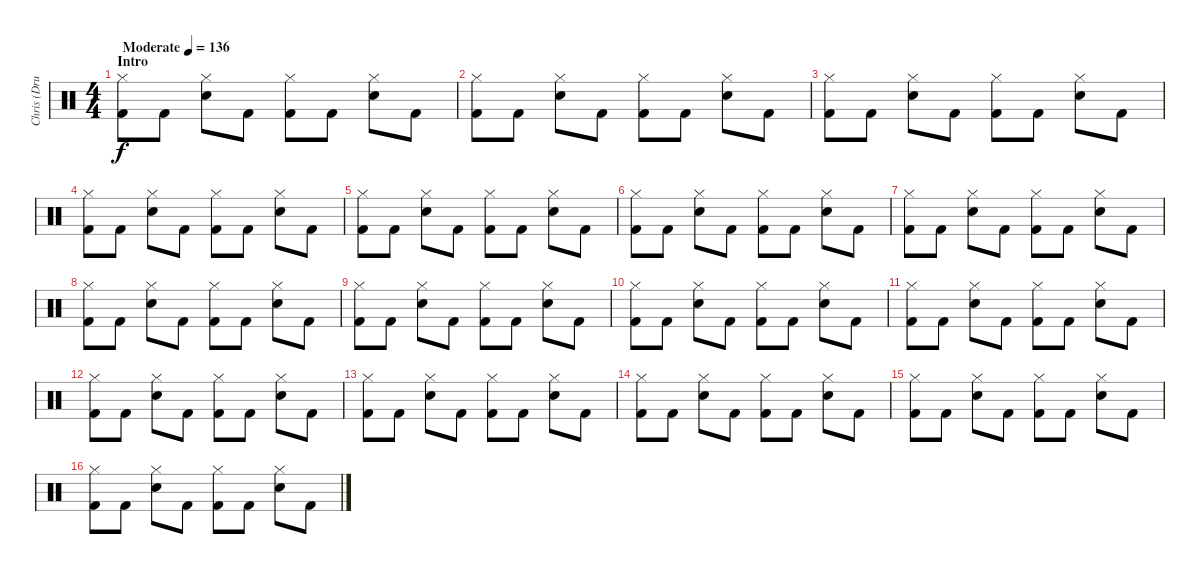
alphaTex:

\track ("Chris (Drums)" "Chris (Dru") {instrument percussion}
\staff {score}
\articulation defaults
\ts (4 4)
\section ("" "Intro")
\tempo (136 "Moderate")
\clef neutral
\ks c
("Hi-Hat (closed)" "Kick (hit) 2").8{dy f} "Kick (hit) 2".8 ("Hi-Hat (closed)" "Snare (hit) 2").8 "Kick (hit) 2".8 ("Hi-Hat (closed)" "Kick (hit) 2").8 "Kick (hit) 2".8 ("Hi-Hat (closed)" "Snare (hit) 2").8 "Kick (hit) 2".8 |
("Hi-Hat (closed)" "Kick (hit) 2").8 "Kick (hit) 2".8 ("Hi-Hat (closed)" "Snare (hit) 2").8 "Kick (hit) 2".8 ("Hi-Hat (closed)" "Kick (hit) 2").8 "Kick (hit) 2".8 ("Hi-Hat (closed)" "Snare (hit) 2").8 "Kick (hit) 2".8 |
("Hi-Hat (closed)" "Kick (hit) 2").8 "Kick (hit) 2".8 ("Hi-Hat (closed)" "Snare (hit) 2").8 "Kick (hit) 2".8 ("Hi-Hat (closed)" "Kick (hit) 2").8 "Kick (hit) 2".8 ("Hi-Hat (closed)" "Snare (hit) 2").8 "Kick (hit) 2".8 |
("Hi-Hat (closed)" "Kick (hit) 2").8 "Kick (hit) 2".8 ("Hi-Hat (closed)" "Snare (hit) 2").8 "Kick (hit) 2".8 ("Hi-Hat (closed)" "Kick (hit) 2").8 "Kick (hit) 2".8 ("Hi-Hat (closed)" "Snare (hit) 2").8 "Kick (hit) 2".8 |
("Hi-Hat (closed)" "Kick (hit) 2").8 "Kick (hit) 2".8 ("Hi-Hat (closed)" "Snare (hit) 2").8 "Kick (hit) 2".8 ("Hi-Hat (closed)" "Kick (hit) 2").8 "Kick (hit) 2".8 ("Hi-Hat (closed)" "Snare (hit) 2").8 "Kick (hit) 2".8 |
("Hi-Hat (closed)" "Kick (hit) 2").8 "Kick (hit) 2".8 ("Hi-Hat (closed)" "Snare (hit) 2").8 "Kick (hit) 2".8 ("Hi-Hat (closed)" "Kick (hit) 2").8 "Kick (hit) 2".8 ("Hi-Hat (closed)" "Snare (hit) 2").8 "Kick (hit) 2".8 |
("Hi-Hat (closed)" "Kick (hit) 2").8 "Kick (hit) 2".8 ("Hi-Hat (closed)" "Snare (hit) 2").8 "Kick (hit) 2".8 ("Hi-Hat (closed)" "Kick (hit) 2").8 "Kick (hit) 2".8 ("Hi-Hat (closed)" "Snare (hit) 2").8 "Kick (hit) 2".8 |
("Hi-Hat (closed)" "Kick (hit) 2").8 "Kick (hit) 2".8 ("Hi-Hat (closed)" "Snare (hit) 2").8 "Kick (hit) 2".8 ("Hi-Hat (closed)" "Kick (hit) 2").8 "Kick (hit) 2".8 ("Hi-Hat (closed)" "Snare (hit) 2").8 "Kick (hit) 2".8 |
("Hi-Hat (closed)" "Kick (hit) 2").8 "Kick (hit) 2".8 ("Hi-Hat (closed)" "Snare (hit) 2").8 "Kick (hit) 2".8 ("Hi-Hat (closed)" "Kick (hit) 2").8 "Kick (hit) 2".8 ("Hi-Hat (closed)" "Snare (hit) 2").8 "Kick (hit) 2".8 |
("Hi-Hat (closed)" "Kick (hit) 2").8 "Kick (hit) 2".8 ("Hi-Hat (closed)" "Snare (hit) 2").8 "Kick (hit) 2".8 ("Hi-Hat (closed)" "Kick (hit) 2").8 "Kick (hit) 2".8 ("Hi-Hat (closed)" "Snare (hit) 2").8 "Kick (hit) 2".8 |
("Hi-Hat (closed)" "Kick (hit) 2").8 "Kick (hit) 2".8 ("Hi-Hat (closed)" "Snare (hit) 2").8 "Kick (hit) 2".8 ("Hi-Hat (closed)" "Kick (hit) 2").8 "Kick (hit) 2".8 ("Hi-Hat (closed)" "Snare (hit) 2").8 "Kick (hit) 2".8 |
("Hi-Hat (closed)" "Kick (hit) 2").8 "Kick (hit) 2".8 ("Hi-Hat (closed)" "Snare (hit) 2").8 "Kick (hit) 2".8 ("Hi-Hat (closed)" "Kick (hit) 2").8 "Kick (hit) 2".8 ("Hi-Hat (closed)" "Snare (hit) 2").8 "Kick (hit) 2".8 |
("Hi-Hat (closed)" "Kick (hit) 2").8 "Kick (hit) 2".8 ("Hi-Hat (closed)" "Snare (hit) 2").8 "Kick (hit) 2".8 ("Hi-Hat (closed)" "Kick (hit) 2").8 "Kick (hit) 2".8 ("Hi-Hat (closed)" "Snare (hit) 2").8 "Kick (hit) 2".8 |
("Hi-Hat (closed)" "Kick (hit) 2").8 "Kick (hit) 2".8 ("Hi-Hat (closed)" "Snare (hit) 2").8 "Kick (hit) 2".8 ("Hi-Hat (closed)" "Kick (hit) 2").8 "Kick (hit) 2".8 ("Hi-Hat (closed)" "Snare (hit) 2").8 "Kick (hit) 2".8 |
("Hi-Hat (closed)" "Kick (hit) 2").8 "Kick (hit) 2".8 ("Hi-Hat (closed)" "Snare (hit) 2").8 "Kick (hit) 2".8 ("Hi-Hat (closed)" "Kick (hit) 2").8 "Kick (hit) 2".8 ("Hi-Hat (closed)" "Snare (hit) 2").8 "Kick (hit) 2".8 |
("Hi-Hat (closed)" "Kick (hit) 2").8 "Kick (hit) 2".8 ("Hi-Hat (closed)" "Snare (hit) 2").8 "Kick (hit) 2".8 ("Hi-Hat (closed)" "Kick (hit) 2").8 "Kick (hit) 2".8 ("Hi-Hat (closed)" "Snare (hit) 2").8 "Kick (hit) 2".8
